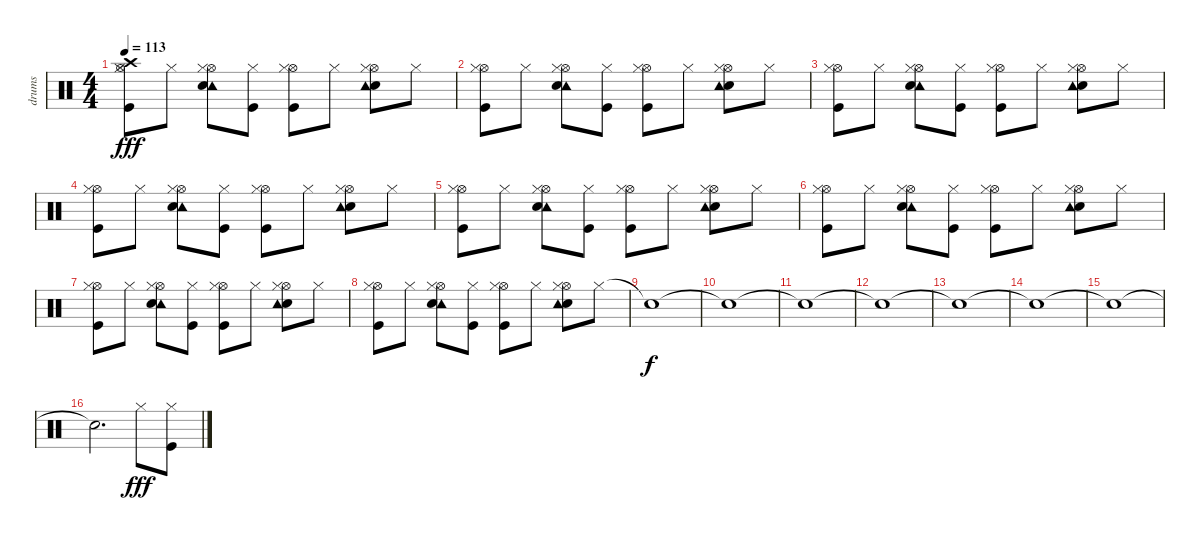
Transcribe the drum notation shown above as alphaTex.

\track ("drums" "drums") {instrument percussion}
\staff {score}
\articulation defaults
\ts (4 4)
\tempo 113
\clef neutral
\ks c
("Crash high (hit)" "Kick (hit)" "Hi-Hat (open)" "Hi-Hat (closed)").8{dy fff} "Hi-Hat (closed)".8 ("Tambourine (hit)" "Electric Snare (hit)" "Hi-Hat (open)" "Hi-Hat (closed)").8 ("Kick (hit)" "Hi-Hat (closed)").8 ("Kick (hit)" "Hi-Hat (open)" "Hi-Hat (closed)").8 "Hi-Hat (closed)".8 ("Electric Snare (hit)" "Hi-Hat (open)" "Tambourine (hit)" "Hi-Hat (closed)").8 "Hi-Hat (closed)".8 |
("Kick (hit)" "Hi-Hat (open)" "Hi-Hat (closed)").8 "Hi-Hat (closed)".8 ("Tambourine (hit)" "Electric Snare (hit)" "Hi-Hat (open)" "Hi-Hat (closed)").8 ("Kick (hit)" "Hi-Hat (closed)").8 ("Kick (hit)" "Hi-Hat (open)" "Hi-Hat (closed)").8 "Hi-Hat (closed)".8 ("Electric Snare (hit)" "Hi-Hat (open)" "Tambourine (hit)" "Hi-Hat (closed)").8 "Hi-Hat (closed)".8 |
("Kick (hit)" "Hi-Hat (open)" "Hi-Hat (closed)").8 "Hi-Hat (closed)".8 ("Tambourine (hit)" "Electric Snare (hit)" "Hi-Hat (open)" "Hi-Hat (closed)").8 ("Kick (hit)" "Hi-Hat (closed)").8 ("Kick (hit)" "Hi-Hat (open)" "Hi-Hat (closed)").8 "Hi-Hat (closed)".8 ("Electric Snare (hit)" "Hi-Hat (open)" "Tambourine (hit)" "Hi-Hat (closed)").8 "Hi-Hat (closed)".8 |
("Kick (hit)" "Hi-Hat (open)" "Hi-Hat (closed)").8 "Hi-Hat (closed)".8 ("Tambourine (hit)" "Electric Snare (hit)" "Hi-Hat (open)" "Hi-Hat (closed)").8 ("Kick (hit)" "Hi-Hat (closed)").8 ("Kick (hit)" "Hi-Hat (open)" "Hi-Hat (closed)").8 "Hi-Hat (closed)".8 ("Electric Snare (hit)" "Hi-Hat (open)" "Tambourine (hit)" "Hi-Hat (closed)").8 "Hi-Hat (closed)".8 |
("Kick (hit)" "Hi-Hat (open)" "Hi-Hat (closed)").8 "Hi-Hat (closed)".8 ("Tambourine (hit)" "Electric Snare (hit)" "Hi-Hat (open)" "Hi-Hat (closed)").8 ("Kick (hit)" "Hi-Hat (closed)").8 ("Kick (hit)" "Hi-Hat (open)" "Hi-Hat (closed)").8 "Hi-Hat (closed)".8 ("Electric Snare (hit)" "Hi-Hat (open)" "Tambourine (hit)" "Hi-Hat (closed)").8 "Hi-Hat (closed)".8 |
("Kick (hit)" "Hi-Hat (open)" "Hi-Hat (closed)").8 "Hi-Hat (closed)".8 ("Tambourine (hit)" "Electric Snare (hit)" "Hi-Hat (open)" "Hi-Hat (closed)").8 ("Kick (hit)" "Hi-Hat (closed)").8 ("Kick (hit)" "Hi-Hat (open)" "Hi-Hat (closed)").8 "Hi-Hat (closed)".8 ("Electric Snare (hit)" "Hi-Hat (open)" "Tambourine (hit)" "Hi-Hat (closed)").8 "Hi-Hat (closed)".8 |
("Kick (hit)" "Hi-Hat (open)" "Hi-Hat (closed)").8 "Hi-Hat (closed)".8 ("Tambourine (hit)" "Electric Snare (hit)" "Hi-Hat (open)" "Hi-Hat (closed)").8 ("Kick (hit)" "Hi-Hat (closed)").8 ("Kick (hit)" "Hi-Hat (open)" "Hi-Hat (closed)").8 "Hi-Hat (closed)".8 ("Electric Snare (hit)" "Hi-Hat (open)" "Tambourine (hit)" "Hi-Hat (closed)").8 "Hi-Hat (closed)".8 |
("Kick (hit)" "Hi-Hat (open)" "Hi-Hat (closed)").8 "Hi-Hat (closed)".8 ("Tambourine (hit)" "Electric Snare (hit)" "Hi-Hat (open)" "Hi-Hat (closed)").8 ("Kick (hit)" "Hi-Hat (closed)").8 ("Kick (hit)" "Hi-Hat (open)" "Hi-Hat (closed)").8 "Hi-Hat (closed)".8 ("Electric Snare (hit)" "Hi-Hat (open)" "Tambourine (hit)" "Hi-Hat (closed)").8 "Hi-Hat (closed)".8 |
"Snare (hit)"{t}.1{dy f} |
"Snare (hit)"{t}.1 |
"Snare (hit)"{t}.1 |
"Snare (hit)"{t}.1 |
"Snare (hit)"{t}.1 |
"Snare (hit)"{t}.1 |
"Snare (hit)"{t}.1 |
"Snare (hit)"{t}.2{d} "Hi-Hat (closed)".8{dy fff} ("Hi-Hat (closed)" "Kick (hit)").8
